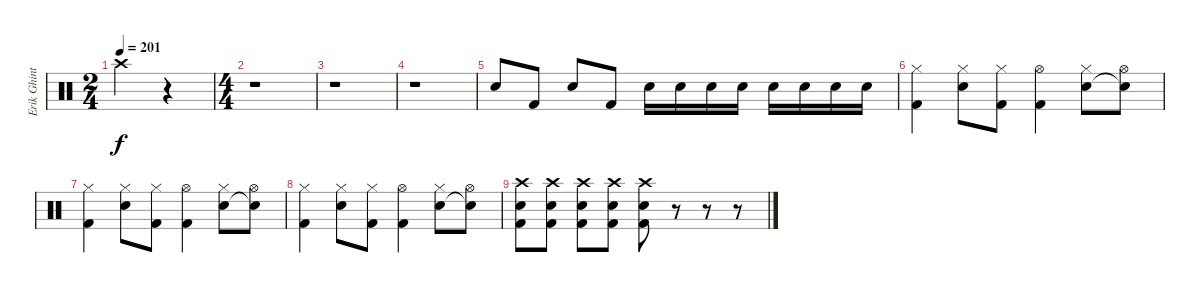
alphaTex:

\track ("Erik Ghint" "Erik Ghint") {instrument percussion}
\staff {score}
\articulation defaults
\ts (2 4)
\tempo 201
\clef neutral
\ks c "Crash high (hit)".4{dy f}
r.4 |
\ts (4 4)
r.1 |
r.1 |
r.1 |
"Snare (hit) 2".8 "Kick (hit) 2".8 "Snare (hit) 2".8 "Kick (hit) 2".8 "Snare (hit) 2".16 "Snare (hit) 2".16 "Snare (hit) 2".16 "Snare (hit) 2".16 "Snare (hit) 2".16 "Snare (hit) 2".16 "Snare (hit) 2".16 "Snare (hit) 2".16 |
("Hi-Hat (closed)" "Kick (hit) 2").4 ("Hi-Hat (closed)" "Snare (hit) 2").8 ("Hi-Hat (closed)" "Kick (hit) 2").8 ("Hi-Hat (open)" "Kick (hit) 2").4 ("Hi-Hat (closed)" "Snare (hit) 2").8 ("Hi-Hat (open)" "Snare (hit)"{t}).8 |
("Hi-Hat (closed)" "Kick (hit) 2").4 ("Hi-Hat (closed)" "Snare (hit) 2").8 ("Hi-Hat (closed)" "Kick (hit) 2").8 ("Hi-Hat (open)" "Kick (hit) 2").4 ("Hi-Hat (closed)" "Snare (hit) 2").8 ("Hi-Hat (open)" "Snare (hit)"{t}).8 |
("Hi-Hat (closed)" "Kick (hit) 2").4 ("Hi-Hat (closed)" "Snare (hit) 2").8 ("Hi-Hat (closed)" "Kick (hit) 2").8 ("Hi-Hat (open)" "Kick (hit) 2").4 ("Hi-Hat (closed)" "Snare (hit) 2").8 ("Hi-Hat (open)" "Snare (hit)"{t}).8 |
("Kick (hit) 2" "Crash high (hit)" "Snare (hit) 2").8 ("Kick (hit) 2" "Crash high (hit)" "Snare (hit) 2").8 ("Kick (hit) 2" "Crash high (hit)" "Snare (hit) 2").8 ("Kick (hit) 2" "Crash high (hit)" "Snare (hit) 2").8 ("Kick (hit) 2" "Crash high (hit)" "Snare (hit) 2").8 r.8 r.8 r.8
